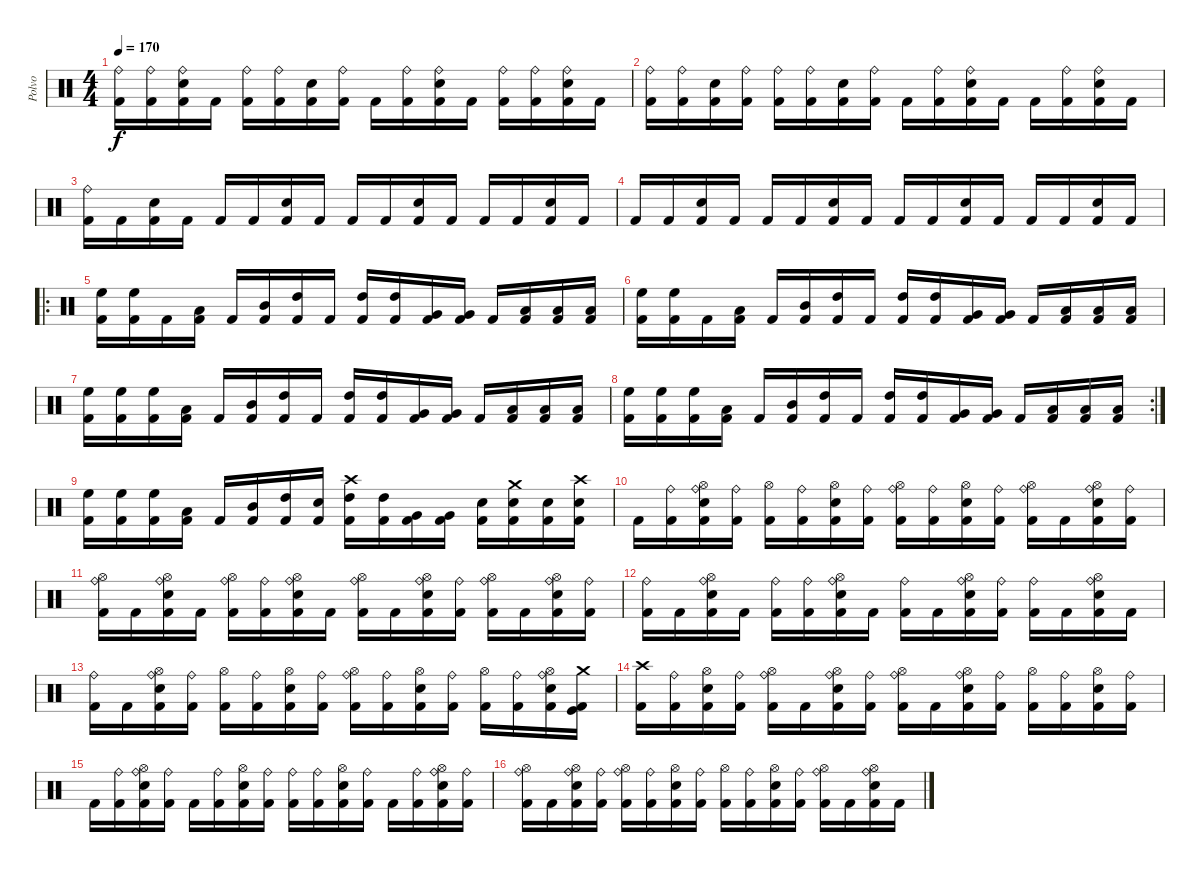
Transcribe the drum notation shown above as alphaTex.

\track ("Polvo" "Polvo") {instrument percussion}
\staff {score}
\articulation defaults
\ts (4 4)
\tempo 170
\clef neutral
\ks c
("Ride (bell)" "Kick (hit) 2").16{dy f} ("Ride (bell)" "Kick (hit) 2").16 ("Ride (bell)" "Electric Snare (hit)" "Kick (hit) 2").16 "Kick (hit) 2".16 ("Ride (bell)" "Kick (hit) 2").16 ("Ride (bell)" "Kick (hit) 2").16 ("Electric Snare (hit)" "Kick (hit) 2").16 ("Ride (bell)" "Kick (hit) 2").16 "Kick (hit) 2".16 ("Ride (bell)" "Kick (hit) 2").16 ("Ride (bell)" "Electric Snare (hit)" "Kick (hit) 2").16 "Kick (hit) 2".16 ("Ride (bell)" "Kick (hit) 2").16 ("Ride (bell)" "Kick (hit) 2").16 ("Ride (bell)" "Electric Snare (hit)" "Kick (hit) 2").16 "Kick (hit) 2".16 |
("Ride (bell)" "Kick (hit) 2").16 ("Ride (bell)" "Kick (hit) 2").16 ("Electric Snare (hit)" "Kick (hit) 2").16 ("Ride (bell)" "Kick (hit) 2").16 ("Ride (bell)" "Kick (hit) 2").16 ("Ride (bell)" "Kick (hit) 2").16 ("Electric Snare (hit)" "Kick (hit) 2").16 ("Ride (bell)" "Kick (hit) 2").16 "Kick (hit) 2".16 ("Ride (bell)" "Kick (hit) 2").16 ("Ride (bell)" "Electric Snare (hit)" "Kick (hit) 2").16 "Kick (hit) 2".16 "Kick (hit) 2".16 ("Ride (bell)" "Kick (hit) 2").16 ("Ride (bell)" "Electric Snare (hit)" "Kick (hit) 2").16 "Kick (hit) 2".16 |
("Ride (bell)" "Kick (hit) 2").16 "Kick (hit) 2".16 ("Electric Snare (hit)" "Kick (hit) 2").16 "Kick (hit) 2".16 "Kick (hit) 2".16 "Kick (hit) 2".16 ("Electric Snare (hit)" "Kick (hit) 2").16 "Kick (hit) 2".16 "Kick (hit) 2".16 "Kick (hit) 2".16 ("Electric Snare (hit)" "Kick (hit) 2").16 "Kick (hit) 2".16 "Kick (hit) 2".16 "Kick (hit) 2".16 ("Electric Snare (hit)" "Kick (hit) 2").16 "Kick (hit) 2".16 |
"Kick (hit) 2".16 "Kick (hit) 2".16 ("Electric Snare (hit)" "Kick (hit) 2").16 "Kick (hit) 2".16 "Kick (hit) 2".16 "Kick (hit) 2".16 ("Electric Snare (hit)" "Kick (hit) 2").16 "Kick (hit) 2".16 "Kick (hit) 2".16 "Kick (hit) 2".16 ("Electric Snare (hit)" "Kick (hit) 2").16 "Kick (hit) 2".16 "Kick (hit) 2".16 "Kick (hit) 2".16 ("Electric Snare (hit)" "Kick (hit) 2").16 "Kick (hit) 2".16 |
\ro
("High Floor Tom (hit)" "Kick (hit) 2").16 ("High Floor Tom (hit)" "Kick (hit) 2").16 "Kick (hit) 2".16 ("Low Tom (hit)" "Kick (hit) 2").16 "Kick (hit) 2".16 ("Mid Tom (hit)" "Kick (hit) 2").16 ("High Tom (hit)" "Kick (hit) 2").16 "Kick (hit) 2".16 ("High Tom (hit)" "Kick (hit) 2").16 ("High Tom (hit)" "Kick (hit) 2").16 ("Very Low Tom (hit)" "Kick (hit) 2").16 ("Very Low Tom (hit)" "Kick (hit) 2").16 "Kick (hit) 2".16 ("Low Floor Tom (hit)" "Kick (hit) 2").16 ("Low Floor Tom (hit)" "Kick (hit) 2").16 ("Low Floor Tom (hit)" "Kick (hit) 2").16 |
("High Floor Tom (hit)" "Kick (hit) 2").16 ("High Floor Tom (hit)" "Kick (hit) 2").16 "Kick (hit) 2".16 ("Low Tom (hit)" "Kick (hit) 2").16 "Kick (hit) 2".16 ("Mid Tom (hit)" "Kick (hit) 2").16 ("High Tom (hit)" "Kick (hit) 2").16 "Kick (hit) 2".16 ("High Tom (hit)" "Kick (hit) 2").16 ("High Tom (hit)" "Kick (hit) 2").16 ("Very Low Tom (hit)" "Kick (hit) 2").16 ("Very Low Tom (hit)" "Kick (hit) 2").16 "Kick (hit) 2".16 ("Low Floor Tom (hit)" "Kick (hit) 2").16 ("Low Floor Tom (hit)" "Kick (hit) 2").16 ("Low Floor Tom (hit)" "Kick (hit) 2").16 |
("High Floor Tom (hit)" "Kick (hit) 2").16 ("High Floor Tom (hit)" "Kick (hit) 2").16 ("High Floor Tom (hit)" "Kick (hit) 2").16 ("Low Tom (hit)" "Kick (hit) 2").16 "Kick (hit) 2".16 ("Mid Tom (hit)" "Kick (hit) 2").16 ("High Tom (hit)" "Kick (hit) 2").16 "Kick (hit) 2".16 ("High Tom (hit)" "Kick (hit) 2").16 ("High Tom (hit)" "Kick (hit) 2").16 ("Very Low Tom (hit)" "Kick (hit) 2").16 ("Very Low Tom (hit)" "Kick (hit) 2").16 "Kick (hit) 2".16 ("Low Floor Tom (hit)" "Kick (hit) 2").16 ("Low Floor Tom (hit)" "Kick (hit) 2").16 ("Low Floor Tom (hit)" "Kick (hit) 2").16 |
\rc 2
("High Floor Tom (hit)" "Kick (hit) 2").16 ("High Floor Tom (hit)" "Kick (hit) 2").16 ("High Floor Tom (hit)" "Kick (hit) 2").16 ("Low Tom (hit)" "Kick (hit) 2").16 "Kick (hit) 2".16 ("Mid Tom (hit)" "Kick (hit) 2").16 ("High Tom (hit)" "Kick (hit) 2").16 "Kick (hit) 2".16 ("High Tom (hit)" "Kick (hit) 2").16 ("High Tom (hit)" "Kick (hit) 2").16 ("Very Low Tom (hit)" "Kick (hit) 2").16 ("Very Low Tom (hit)" "Kick (hit) 2").16 "Kick (hit) 2".16 ("Low Floor Tom (hit)" "Kick (hit) 2").16 ("Low Floor Tom (hit)" "Kick (hit) 2").16 ("Low Floor Tom (hit)" "Kick (hit) 2").16 |
("High Floor Tom (hit)" "Kick (hit) 2").16 ("High Floor Tom (hit)" "Kick (hit) 2").16 ("High Floor Tom (hit)" "Kick (hit) 2").16 ("Low Tom (hit)" "Kick (hit) 2").16 "Kick (hit) 2".16 ("Mid Tom (hit)" "Kick (hit) 2").16 ("High Tom (hit)" "Kick (hit) 2").16 ("Electric Snare (hit)" "Kick (hit) 2").16 ("Crash high (hit)" "High Tom (hit)" "Kick (hit) 2").16 ("High Tom (hit)" "Kick (hit) 2").16 ("Very Low Tom (hit)" "Kick (hit) 2").16 ("Very Low Tom (hit)" "Kick (hit) 2").16 ("Electric Snare (hit)" "Kick (hit) 2").16 ("Crash medium (hit)" "Electric Snare (hit)" "Kick (hit) 2").16 ("Electric Snare (hit)" "Kick (hit) 2").16 ("Crash high (hit)" "Electric Snare (hit)" "Kick (hit) 2").16 |
"Kick (hit) 2".16 ("Ride (bell)" "Kick (hit) 2").16 ("Ride (bell)" "Hi-Hat (open)" "Electric Snare (hit)" "Kick (hit) 2").16 ("Ride (bell)" "Kick (hit) 2").16 ("Hi-Hat (open)" "Kick (hit) 2").16 ("Ride (bell)" "Kick (hit) 2").16 ("Hi-Hat (open)" "Electric Snare (hit)" "Kick (hit) 2").16 ("Ride (bell)" "Kick (hit) 2").16 ("Ride (bell)" "Hi-Hat (open)" "Kick (hit) 2").16 ("Ride (bell)" "Kick (hit) 2").16 ("Hi-Hat (open)" "Electric Snare (hit)" "Kick (hit) 2").16 ("Ride (bell)" "Kick (hit) 2").16 ("Ride (bell)" "Hi-Hat (open)" "Kick (hit) 2").16 "Kick (hit) 2".16 ("Ride (bell)" "Hi-Hat (open)" "Electric Snare (hit)" "Kick (hit) 2").16 ("Ride (bell)" "Kick (hit) 2").16 |
("Ride (bell)" "Hi-Hat (open)" "Kick (hit) 2").16 "Kick (hit) 2".16 ("Ride (bell)" "Hi-Hat (open)" "Electric Snare (hit)" "Kick (hit) 2").16 "Kick (hit) 2".16 ("Ride (bell)" "Hi-Hat (open)" "Kick (hit) 2").16 ("Ride (bell)" "Kick (hit) 2").16 ("Ride (bell)" "Hi-Hat (open)" "Electric Snare (hit)" "Kick (hit) 2").16 "Kick (hit) 2".16 ("Ride (bell)" "Hi-Hat (open)" "Kick (hit) 2").16 "Kick (hit) 2".16 ("Ride (bell)" "Hi-Hat (open)" "Electric Snare (hit)" "Kick (hit) 2").16 ("Ride (bell)" "Kick (hit) 2").16 ("Ride (bell)" "Hi-Hat (open)" "Kick (hit) 2").16 "Kick (hit) 2".16 ("Ride (bell)" "Hi-Hat (open)" "Electric Snare (hit)" "Kick (hit) 2").16 ("Ride (bell)" "Kick (hit) 2").16 |
("Ride (bell)" "Kick (hit) 2").16 "Kick (hit) 2".16 ("Ride (bell)" "Hi-Hat (open)" "Electric Snare (hit)" "Kick (hit) 2").16 "Kick (hit) 2".16 ("Ride (bell)" "Kick (hit) 2").16 ("Ride (bell)" "Kick (hit) 2").16 ("Ride (bell)" "Hi-Hat (open)" "Electric Snare (hit)" "Kick (hit) 2").16 "Kick (hit) 2".16 ("Ride (bell)" "Kick (hit) 2").16 "Kick (hit) 2".16 ("Ride (bell)" "Hi-Hat (open)" "Electric Snare (hit)" "Kick (hit) 2").16 ("Ride (bell)" "Kick (hit) 2").16 ("Ride (bell)" "Kick (hit) 2").16 "Kick (hit) 2".16 ("Ride (bell)" "Hi-Hat (open)" "Electric Snare (hit)" "Kick (hit) 2").16 "Kick (hit) 2".16 |
("Ride (bell)" "Kick (hit) 2").16 "Kick (hit) 2".16 ("Ride (bell)" "Hi-Hat (open)" "Electric Snare (hit)" "Kick (hit) 2").16 ("Ride (bell)" "Kick (hit) 2").16 ("Hi-Hat (open)" "Kick (hit) 2").16 ("Ride (bell)" "Kick (hit) 2").16 ("Hi-Hat (open)" "Electric Snare (hit)" "Kick (hit) 2").16 ("Ride (bell)" "Kick (hit) 2").16 ("Ride (bell)" "Hi-Hat (open)" "Kick (hit) 2").16 ("Ride (bell)" "Kick (hit) 2").16 ("Hi-Hat (open)" "Electric Snare (hit)" "Kick (hit) 2").16 ("Ride (bell)" "Kick (hit) 2").16 ("Hi-Hat (open)" "Kick (hit) 2").16 ("Ride (bell)" "Kick (hit) 2").16 ("Ride (bell)" "Hi-Hat (open)" "Electric Snare (hit)" "Kick (hit) 2").16 ("Kick (hit)" "Crash medium (hit)" "Kick (hit) 2").16 |
("Crash high (hit)" "Kick (hit) 2").16 ("Ride (bell)" "Kick (hit) 2").16 ("Hi-Hat (open)" "Electric Snare (hit)" "Kick (hit) 2").16 ("Ride (bell)" "Kick (hit) 2").16 ("Ride (bell)" "Hi-Hat (open)" "Kick (hit) 2").16 "Kick (hit) 2".16 ("Ride (bell)" "Hi-Hat (open)" "Electric Snare (hit)" "Kick (hit) 2").16 ("Ride (bell)" "Kick (hit) 2").16 ("Ride (bell)" "Hi-Hat (open)" "Kick (hit) 2").16 "Kick (hit) 2".16 ("Ride (bell)" "Hi-Hat (open)" "Electric Snare (hit)" "Kick (hit) 2").16 ("Ride (bell)" "Kick (hit) 2").16 ("Hi-Hat (open)" "Kick (hit) 2").16 ("Ride (bell)" "Kick (hit) 2").16 ("Hi-Hat (open)" "Electric Snare (hit)" "Kick (hit) 2").16 ("Ride (bell)" "Kick (hit) 2").16 |
"Kick (hit) 2".16 ("Ride (bell)" "Kick (hit) 2").16 ("Ride (bell)" "Hi-Hat (open)" "Electric Snare (hit)" "Kick (hit) 2").16 ("Ride (bell)" "Kick (hit) 2").16 "Kick (hit) 2".16 ("Ride (bell)" "Kick (hit) 2").16 ("Hi-Hat (open)" "Electric Snare (hit)" "Kick (hit) 2").16 ("Ride (bell)" "Kick (hit) 2").16 ("Ride (bell)" "Kick (hit) 2").16 ("Ride (bell)" "Kick (hit) 2").16 ("Hi-Hat (open)" "Electric Snare (hit)" "Kick (hit) 2").16 ("Ride (bell)" "Kick (hit) 2").16 "Kick (hit) 2".16 ("Ride (bell)" "Kick (hit) 2").16 ("Ride (bell)" "Hi-Hat (open)" "Electric Snare (hit)" "Kick (hit) 2").16 ("Ride (bell)" "Kick (hit) 2").16 |
("Ride (bell)" "Hi-Hat (open)" "Kick (hit) 2").16 "Kick (hit) 2".16 ("Ride (bell)" "Hi-Hat (open)" "Electric Snare (hit)" "Kick (hit) 2").16 ("Ride (bell)" "Kick (hit) 2").16 ("Ride (bell)" "Hi-Hat (open)" "Kick (hit) 2").16 ("Ride (bell)" "Kick (hit) 2").16 ("Hi-Hat (open)" "Electric Snare (hit)" "Kick (hit) 2").16 ("Ride (bell)" "Kick (hit) 2").16 ("Hi-Hat (open)" "Kick (hit) 2").16 ("Ride (bell)" "Kick (hit) 2").16 ("Hi-Hat (open)" "Electric Snare (hit)" "Kick (hit) 2").16 ("Ride (bell)" "Kick (hit) 2").16 ("Ride (bell)" "Hi-Hat (open)" "Kick (hit) 2").16 "Kick (hit) 2".16 ("Ride (bell)" "Hi-Hat (open)" "Electric Snare (hit)" "Kick (hit) 2").16 "Kick (hit) 2".16
